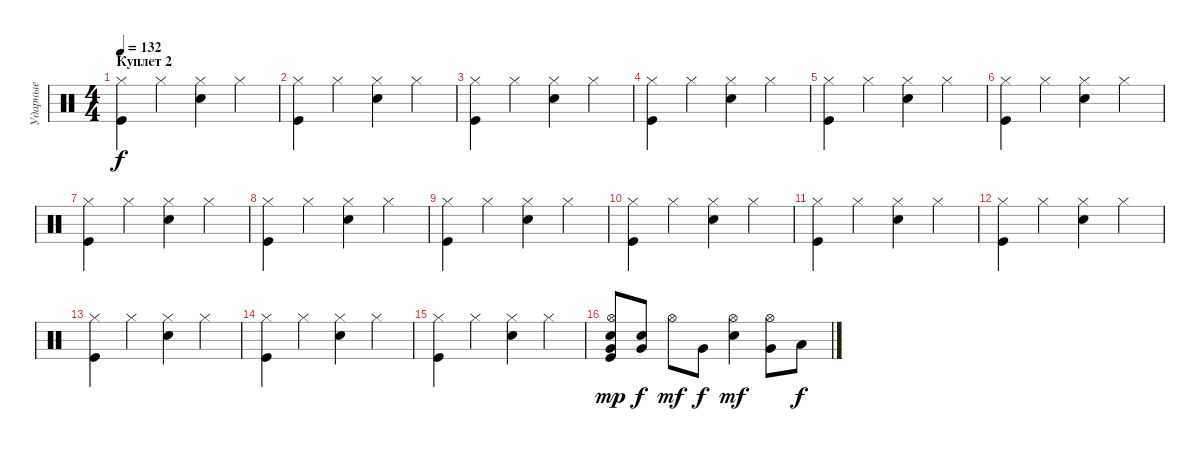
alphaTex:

\track ("Ударные" "Ударные") {instrument percussion}
\staff {score}
\articulation defaults
\ts (4 4)
\section ("" "Куплет 2")
\tempo 132
\clef neutral
\ks c
("Hi-Hat (closed)" "Kick (hit)").4{dy f} "Hi-Hat (closed)".4 ("Hi-Hat (closed)" "Snare (hit) 2").4 "Hi-Hat (closed)".4 |
("Hi-Hat (closed)" "Kick (hit)").4 "Hi-Hat (closed)".4 ("Hi-Hat (closed)" "Snare (hit) 2").4 "Hi-Hat (closed)".4 |
("Hi-Hat (closed)" "Kick (hit)").4 "Hi-Hat (closed)".4 ("Hi-Hat (closed)" "Snare (hit) 2").4 "Hi-Hat (closed)".4 |
("Hi-Hat (closed)" "Kick (hit)").4 "Hi-Hat (closed)".4 ("Hi-Hat (closed)" "Snare (hit) 2").4 "Hi-Hat (closed)".4 |
("Hi-Hat (closed)" "Kick (hit)").4 "Hi-Hat (closed)".4 ("Hi-Hat (closed)" "Snare (hit) 2").4 "Hi-Hat (closed)".4 |
("Hi-Hat (closed)" "Kick (hit)").4 "Hi-Hat (closed)".4 ("Hi-Hat (closed)" "Snare (hit) 2").4 "Hi-Hat (closed)".4 |
("Hi-Hat (closed)" "Kick (hit)").4 "Hi-Hat (closed)".4 ("Hi-Hat (closed)" "Snare (hit) 2").4 "Hi-Hat (closed)".4 |
("Hi-Hat (closed)" "Kick (hit)").4 "Hi-Hat (closed)".4 ("Hi-Hat (closed)" "Snare (hit) 2").4 "Hi-Hat (closed)".4 |
("Hi-Hat (closed)" "Kick (hit)").4 "Hi-Hat (closed)".4 ("Hi-Hat (closed)" "Snare (hit) 2").4 "Hi-Hat (closed)".4 |
("Hi-Hat (closed)" "Kick (hit)").4 "Hi-Hat (closed)".4 ("Hi-Hat (closed)" "Snare (hit) 2").4 "Hi-Hat (closed)".4 |
("Hi-Hat (closed)" "Kick (hit)").4 "Hi-Hat (closed)".4 ("Hi-Hat (closed)" "Snare (hit) 2").4 "Hi-Hat (closed)".4 |
("Hi-Hat (closed)" "Kick (hit)").4 "Hi-Hat (closed)".4 ("Hi-Hat (closed)" "Snare (hit) 2").4 "Hi-Hat (closed)".4 |
("Hi-Hat (closed)" "Kick (hit)").4 "Hi-Hat (closed)".4 ("Hi-Hat (closed)" "Snare (hit) 2").4 "Hi-Hat (closed)".4 |
("Hi-Hat (closed)" "Kick (hit)").4 "Hi-Hat (closed)".4 ("Hi-Hat (closed)" "Snare (hit) 2").4 "Hi-Hat (closed)".4 |
("Hi-Hat (closed)" "Kick (hit)").4 "Hi-Hat (closed)".4 ("Hi-Hat (closed)" "Snare (hit) 2").4 "Hi-Hat (closed)".4 |
("Hi-Hat (open)" "Kick (hit)" "Very Low Tom (hit)" "Snare (hit) 2").8{dy mp} ("Very Low Tom (hit)" "Snare (hit) 2").8{dy f} "Hi-Hat (open)".8{dy mf} "Very Low Tom (hit)".8{dy f} ("Hi-Hat (open)" "Snare (hit) 2").4{dy mf} ("Hi-Hat (open)" "Very Low Tom (hit)").8 "Low Floor Tom (hit)".8{dy f}
